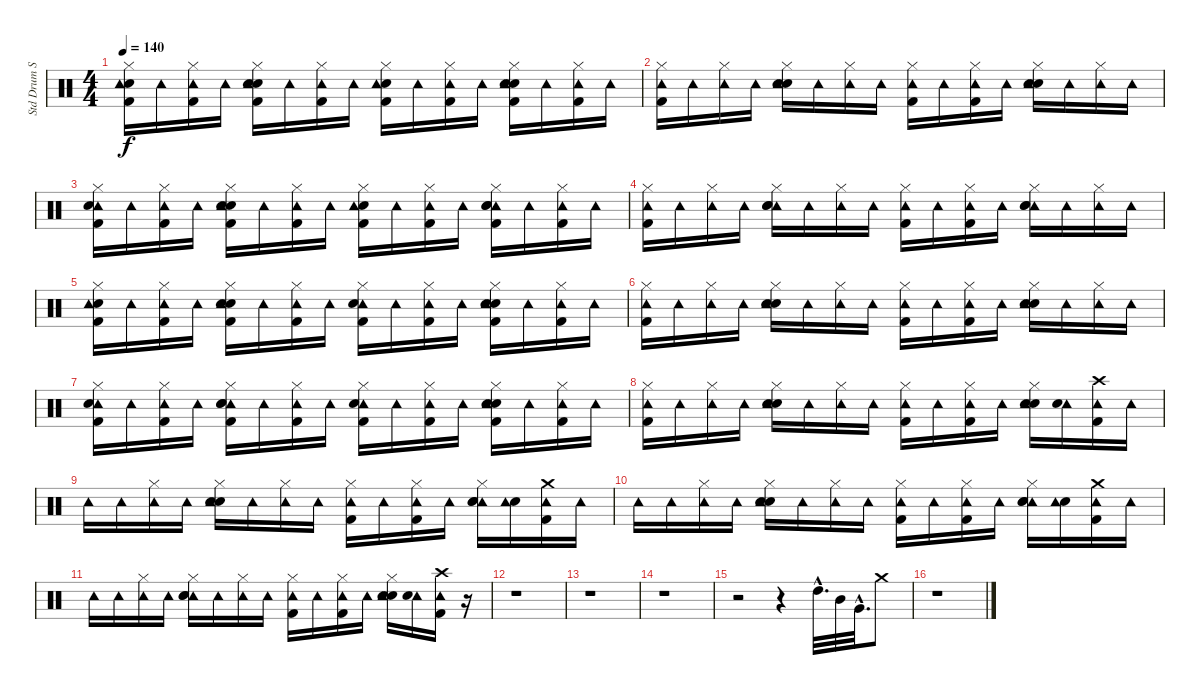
\track ("Std Drum Set" "Std Drum S") {instrument percussion}
\staff {score}
\articulation defaults
\ts (4 4)
\tempo 140
\clef neutral
\ks c
("Snare (hit) 2" "Kick (hit) 2" "Tambourine (hit)" "Hi-Hat (closed)").16{dy f} "Tambourine (hit)".16 ("Kick (hit) 2" "Tambourine (hit)" "Hi-Hat (closed)").16 "Tambourine (hit)".16 ("Hand Clap (hit)" "Kick (hit) 2" "Hi-Hat (closed)" "Snare (hit) 2" "Tambourine (hit)").16 "Tambourine (hit)".16 ("Kick (hit) 2" "Tambourine (hit)" "Hi-Hat (closed)").16 "Tambourine (hit)".16 ("Snare (hit) 2" "Kick (hit) 2" "Tambourine (hit)" "Hi-Hat (closed)").16 "Tambourine (hit)".16 ("Tambourine (hit)" "Hi-Hat (closed)" "Kick (hit) 2").16 "Tambourine (hit)".16 ("Snare (hit) 2" "Hi-Hat (closed)" "Hand Clap (hit)" "Kick (hit) 2" "Tambourine (hit)").16 "Tambourine (hit)".16 ("Hi-Hat (closed)" "Tambourine (hit)" "Kick (hit) 2").16 "Tambourine (hit)".16 |
("Hi-Hat (closed)" "Kick (hit) 2" "Tambourine (hit)").16 "Tambourine (hit)".16 ("Tambourine (hit)" "Hi-Hat (closed)").16 "Tambourine (hit)".16 ("Snare (hit) 2" "Tambourine (hit)" "Hand Clap (hit)" "Hi-Hat (closed)").16 "Tambourine (hit)".16 ("Tambourine (hit)" "Hi-Hat (closed)").16 "Tambourine (hit)".16 ("Tambourine (hit)" "Kick (hit) 2" "Hi-Hat (closed)").16 "Tambourine (hit)".16 ("Kick (hit) 2" "Tambourine (hit)" "Hi-Hat (closed)").16 "Tambourine (hit)".16 ("Hi-Hat (closed)" "Snare (hit) 2" "Hand Clap (hit)" "Tambourine (hit)").16 "Tambourine (hit)".16 ("Hi-Hat (closed)" "Tambourine (hit)").16 "Tambourine (hit)".16 |
("Tambourine (hit)" "Hi-Hat (closed)" "Snare (hit) 2" "Kick (hit) 2").16 "Tambourine (hit)".16 ("Hi-Hat (closed)" "Tambourine (hit)" "Kick (hit) 2").16 "Tambourine (hit)".16 ("Kick (hit) 2" "Hand Clap (hit)" "Hi-Hat (closed)" "Tambourine (hit)" "Snare (hit) 2").16 "Tambourine (hit)".16 ("Tambourine (hit)" "Kick (hit) 2" "Hi-Hat (closed)").16 "Tambourine (hit)".16 ("Kick (hit) 2" "Snare (hit) 2" "Tambourine (hit)" "Hi-Hat (closed)").16 "Tambourine (hit)".16 ("Tambourine (hit)" "Hi-Hat (closed)" "Kick (hit) 2").16 "Tambourine (hit)".16 ("Tambourine (hit)" "Kick (hit) 2" "Hi-Hat (closed)" "Hand Clap (hit)" "Snare (hit) 2").16 "Tambourine (hit)".16 ("Kick (hit) 2" "Hi-Hat (closed)" "Tambourine (hit)").16 "Tambourine (hit)".16 |
("Tambourine (hit)" "Hi-Hat (closed)" "Kick (hit) 2").16 "Tambourine (hit)".16 ("Hi-Hat (closed)" "Tambourine (hit)").16 "Tambourine (hit)".16 ("Tambourine (hit)" "Hi-Hat (closed)" "Snare (hit) 2" "Hand Clap (hit)").16 "Tambourine (hit)".16 ("Tambourine (hit)" "Hi-Hat (closed)").16 "Tambourine (hit)".16 ("Hi-Hat (closed)" "Tambourine (hit)" "Kick (hit) 2").16 "Tambourine (hit)".16 ("Tambourine (hit)" "Kick (hit) 2" "Hi-Hat (closed)").16 "Tambourine (hit)".16 ("Tambourine (hit)" "Hand Clap (hit)" "Snare (hit) 2" "Hi-Hat (closed)").16 "Tambourine (hit)".16 ("Hi-Hat (closed)" "Tambourine (hit)").16 "Tambourine (hit)".16 |
("Snare (hit) 2" "Tambourine (hit)" "Hi-Hat (closed)" "Kick (hit) 2").16 "Tambourine (hit)".16 ("Tambourine (hit)" "Hi-Hat (closed)" "Kick (hit) 2").16 "Tambourine (hit)".16 ("Kick (hit) 2" "Hi-Hat (closed)" "Snare (hit) 2" "Tambourine (hit)" "Hand Clap (hit)").16 "Tambourine (hit)".16 ("Tambourine (hit)" "Hi-Hat (closed)" "Kick (hit) 2").16 "Tambourine (hit)".16 ("Hi-Hat (closed)" "Tambourine (hit)" "Snare (hit) 2" "Kick (hit) 2").16 "Tambourine (hit)".16 ("Tambourine (hit)" "Kick (hit) 2" "Hi-Hat (closed)").16 "Tambourine (hit)".16 ("Hand Clap (hit)" "Hi-Hat (closed)" "Tambourine (hit)" "Kick (hit) 2" "Snare (hit) 2").16 "Tambourine (hit)".16 ("Tambourine (hit)" "Hi-Hat (closed)" "Kick (hit) 2").16 "Tambourine (hit)".16 |
("Hi-Hat (closed)" "Tambourine (hit)" "Kick (hit) 2").16 "Tambourine (hit)".16 ("Tambourine (hit)" "Hi-Hat (closed)").16 "Tambourine (hit)".16 ("Hand Clap (hit)" "Hi-Hat (closed)" "Tambourine (hit)" "Snare (hit) 2").16 "Tambourine (hit)".16 ("Tambourine (hit)" "Hi-Hat (closed)").16 "Tambourine (hit)".16 ("Tambourine (hit)" "Hi-Hat (closed)" "Kick (hit) 2").16 "Tambourine (hit)".16 ("Tambourine (hit)" "Kick (hit) 2" "Hi-Hat (closed)").16 "Tambourine (hit)".16 ("Hi-Hat (closed)" "Snare (hit) 2" "Hand Clap (hit)" "Tambourine (hit)").16 "Tambourine (hit)".16 ("Tambourine (hit)" "Hi-Hat (closed)").16 "Tambourine (hit)".16 |
("Tambourine (hit)" "Hi-Hat (closed)" "Kick (hit) 2" "Snare (hit) 2").16 "Tambourine (hit)".16 ("Kick (hit) 2" "Tambourine (hit)" "Hi-Hat (closed)").16 "Tambourine (hit)".16 ("Tambourine (hit)" "Hi-Hat (closed)" "Snare (hit) 2" "Hand Clap (hit)" "Kick (hit) 2").16 "Tambourine (hit)".16 ("Kick (hit) 2" "Tambourine (hit)" "Hi-Hat (closed)").16 "Tambourine (hit)".16 ("Kick (hit) 2" "Tambourine (hit)" "Hi-Hat (closed)" "Snare (hit) 2").16 "Tambourine (hit)".16 ("Hi-Hat (closed)" "Tambourine (hit)" "Kick (hit) 2").16 "Tambourine (hit)".16 ("Snare (hit) 2" "Hi-Hat (closed)" "Kick (hit) 2" "Hand Clap (hit)" "Tambourine (hit)").16 "Tambourine (hit)".16 ("Hi-Hat (closed)" "Kick (hit) 2" "Tambourine (hit)").16 "Tambourine (hit)".16 |
("Kick (hit) 2" "Hi-Hat (closed)" "Tambourine (hit)").16 "Tambourine (hit)".16 ("Hi-Hat (closed)" "Tambourine (hit)").16 "Tambourine (hit)".16 ("Snare (hit) 2" "Hand Clap (hit)" "Tambourine (hit)" "Hi-Hat (closed)").16 "Tambourine (hit)".16 ("Tambourine (hit)" "Hi-Hat (closed)").16 "Tambourine (hit)".16 ("Hi-Hat (closed)" "Kick (hit) 2" "Tambourine (hit)").16 "Tambourine (hit)".16 ("Tambourine (hit)" "Kick (hit) 2" "Hi-Hat (closed)").16 "Tambourine (hit)".16 ("Hand Clap (hit)" "Hi-Hat (closed)" "Tambourine (hit)" "Snare (hit) 2").16 ("Tambourine (hit)" "Snare (hit) 2").16 ("Kick (hit) 2" "Crash high (hit)" "Tambourine (hit)").16 "Tambourine (hit)".16 |
"Tambourine (hit)".16 "Tambourine (hit)".16 ("Tambourine (hit)" "Hi-Hat (closed)").16 "Tambourine (hit)".16 ("Hi-Hat (closed)" "Snare (hit) 2" "Hand Clap (hit)" "Tambourine (hit)").16 "Tambourine (hit)".16 ("Hi-Hat (closed)" "Tambourine (hit)").16 "Tambourine (hit)".16 ("Tambourine (hit)" "Kick (hit) 2" "Hi-Hat (closed)").16 "Tambourine (hit)".16 ("Hi-Hat (closed)" "Tambourine (hit)" "Kick (hit) 2").16 "Tambourine (hit)".16 ("Tambourine (hit)" "Hand Clap (hit)" "Snare (hit) 2" "Hi-Hat (closed)").16 ("Snare (hit) 2" "Tambourine (hit)").16 ("Tambourine (hit)" "Kick (hit) 2" "Crash medium (hit)").16 "Tambourine (hit)".16 |
"Tambourine (hit)".16 "Tambourine (hit)".16 ("Tambourine (hit)" "Hi-Hat (closed)").16 "Tambourine (hit)".16 ("Hi-Hat (closed)" "Snare (hit) 2" "Hand Clap (hit)" "Tambourine (hit)").16 "Tambourine (hit)".16 ("Hi-Hat (closed)" "Tambourine (hit)").16 "Tambourine (hit)".16 ("Tambourine (hit)" "Kick (hit) 2" "Hi-Hat (closed)").16 "Tambourine (hit)".16 ("Hi-Hat (closed)" "Tambourine (hit)" "Kick (hit) 2").16 "Tambourine (hit)".16 ("Tambourine (hit)" "Hand Clap (hit)" "Snare (hit) 2" "Hi-Hat (closed)").16 ("Snare (hit) 2" "Tambourine (hit)").16 ("Tambourine (hit)" "Kick (hit) 2" "Crash medium (hit)").16 "Tambourine (hit)".16 |
"Tambourine (hit)".16 "Tambourine (hit)".16 ("Hi-Hat (closed)" "Tambourine (hit)").16 "Tambourine (hit)".16 ("Tambourine (hit)" "Snare (hit) 2" "Hi-Hat (closed)" "Hand Clap (hit)").16 "Tambourine (hit)".16 ("Tambourine (hit)" "Hi-Hat (closed)").16 "Tambourine (hit)".16 ("Hi-Hat (closed)" "Kick (hit) 2" "Tambourine (hit)").16 "Tambourine (hit)".16 ("Hi-Hat (closed)" "Tambourine (hit)" "Kick (hit) 2").16 "Tambourine (hit)".16 ("Hand Clap (hit)" "Hi-Hat (closed)" "Tambourine (hit)" "Snare (hit) 2").16 ("Tambourine (hit)" "Snare (hit) 2").16 ("Tambourine (hit)" "Kick (hit) 2" "Crash high (hit)").16 r.16 |
r.1 |
r.1 |
r.1 |
r.2 r.4 "High Tom (hit)"{hac}.32{d} "Mid Tom (hit)".32 "Very Low Tom (hit)"{hac}.32{d} "Crash medium (hit)".8 |
r.1
